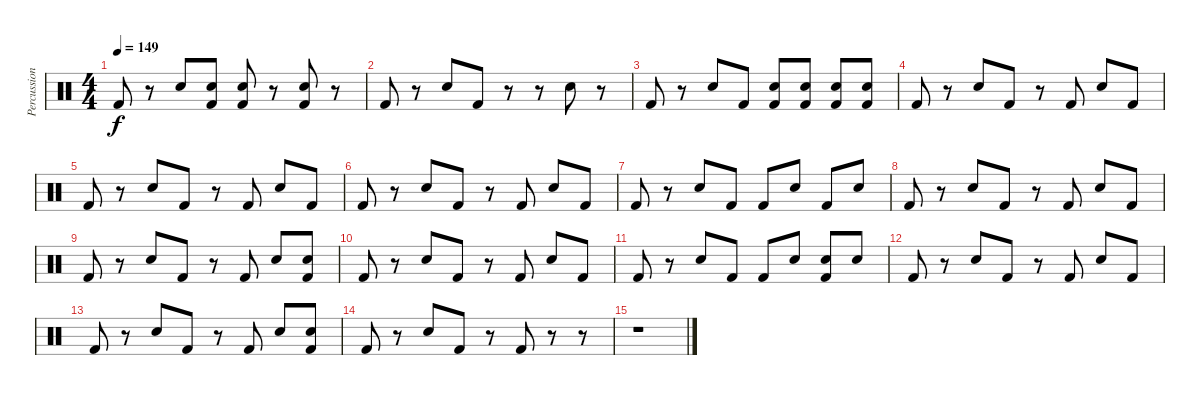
\track ("Percussion" "Percussion") {instrument percussion}
\staff {score}
\articulation defaults
\ts (4 4)
\tempo 149
\clef neutral
\ks c "Kick (hit) 2".8{dy f}
r.8 "Hand Clap (hit)".8 ("Hand Clap (hit)" "Kick (hit) 2").8 ("Hand Clap (hit)" "Kick (hit) 2").8 r.8 ("Hand Clap (hit)" "Kick (hit) 2").8 r.8 |
"Kick (hit) 2".8 r.8 "Hand Clap (hit)".8 "Kick (hit) 2".8 r.8 r.8 "Hand Clap (hit)".8 r.8 |
"Kick (hit) 2".8 r.8 "Hand Clap (hit)".8 "Kick (hit) 2".8 ("Hand Clap (hit)" "Kick (hit) 2").8 ("Hand Clap (hit)" "Kick (hit) 2").8 ("Hand Clap (hit)" "Kick (hit) 2").8 ("Hand Clap (hit)" "Kick (hit) 2").8 |
"Kick (hit) 2".8 r.8 "Hand Clap (hit)".8 "Kick (hit) 2".8 r.8 "Kick (hit) 2".8 "Hand Clap (hit)".8 "Kick (hit) 2".8 |
"Kick (hit) 2".8 r.8 "Hand Clap (hit)".8 "Kick (hit) 2".8 r.8 "Kick (hit) 2".8 "Hand Clap (hit)".8 "Kick (hit) 2".8 |
"Kick (hit) 2".8 r.8 "Hand Clap (hit)".8 "Kick (hit) 2".8 r.8 "Kick (hit) 2".8 "Hand Clap (hit)".8 "Kick (hit) 2".8 |
"Kick (hit) 2".8 r.8 "Hand Clap (hit)".8 "Kick (hit) 2".8 "Kick (hit) 2".8 "Hand Clap (hit)".8 "Kick (hit) 2".8 "Hand Clap (hit)".8 |
"Kick (hit) 2".8 r.8 "Hand Clap (hit)".8 "Kick (hit) 2".8 r.8 "Kick (hit) 2".8 "Hand Clap (hit)".8 "Kick (hit) 2".8 |
"Kick (hit) 2".8 r.8 "Hand Clap (hit)".8 "Kick (hit) 2".8 r.8 "Kick (hit) 2".8 "Hand Clap (hit)".8 ("Kick (hit) 2" "Hand Clap (hit)").8 |
"Kick (hit) 2".8 r.8 "Hand Clap (hit)".8 "Kick (hit) 2".8 r.8 "Kick (hit) 2".8 "Hand Clap (hit)".8 "Kick (hit) 2".8 |
"Kick (hit) 2".8 r.8 "Hand Clap (hit)".8 "Kick (hit) 2".8 "Kick (hit) 2".8 "Hand Clap (hit)".8 ("Kick (hit) 2" "Hand Clap (hit)").8 "Hand Clap (hit)".8 |
"Kick (hit) 2".8 r.8 "Hand Clap (hit)".8 "Kick (hit) 2".8 r.8 "Kick (hit) 2".8 "Hand Clap (hit)".8 "Kick (hit) 2".8 |
"Kick (hit) 2".8 r.8 "Hand Clap (hit)".8 "Kick (hit) 2".8 r.8 "Kick (hit) 2".8 "Hand Clap (hit)".8 ("Kick (hit) 2" "Hand Clap (hit)").8 |
"Kick (hit) 2".8 r.8 "Hand Clap (hit)".8 "Kick (hit) 2".8 r.8 "Kick (hit) 2".8 r.8 r.8 |
r.1
